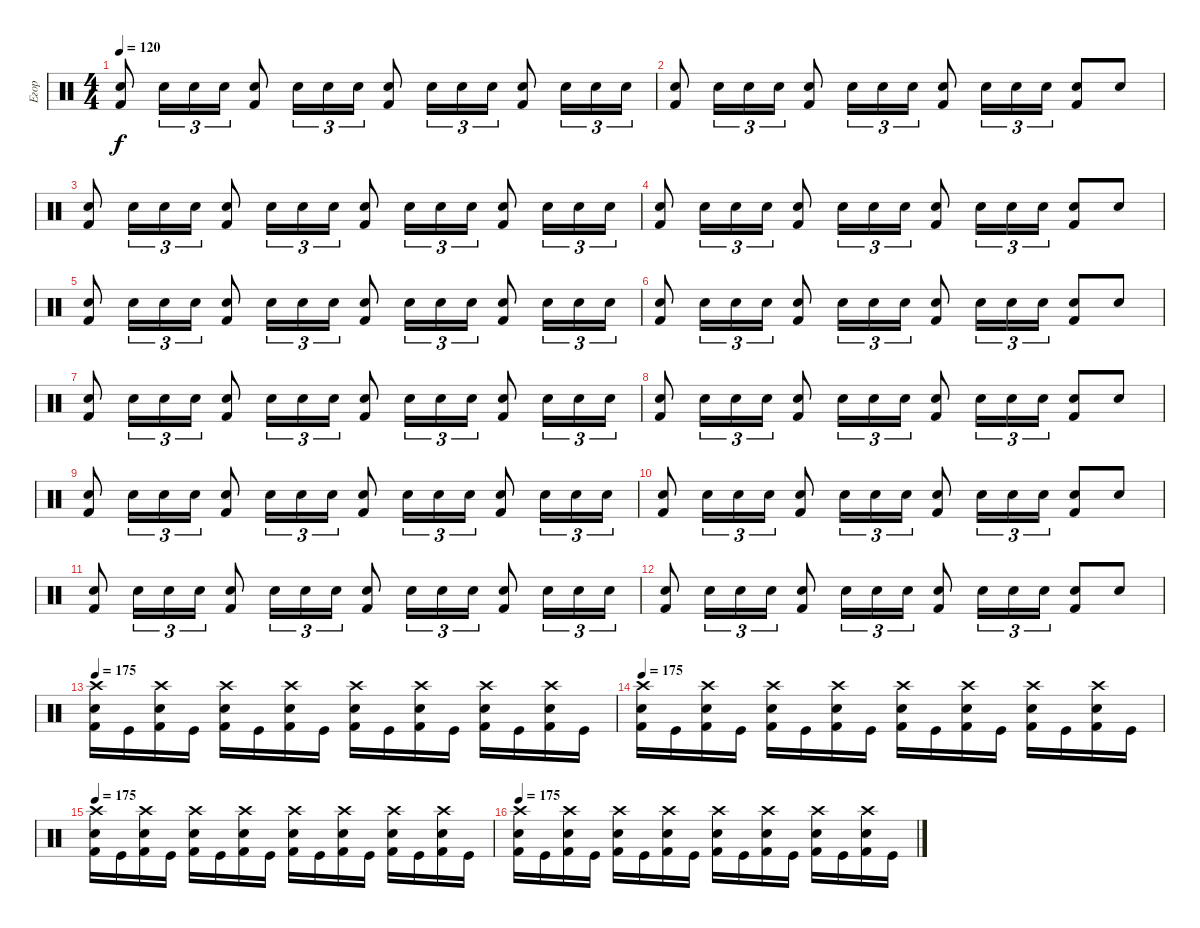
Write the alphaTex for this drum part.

\track ("Егор" "Егор") {instrument percussion}
\staff {score}
\articulation defaults
\ts (4 4)
\tempo 120
\clef neutral
\ks c
("Snare (hit) 2" "Kick (hit) 2").8{dy f} "Snare (hit) 2".16{tu (3 2)} "Snare (hit) 2".16{tu (3 2)} "Snare (hit) 2".16{tu (3 2)} ("Snare (hit) 2" "Kick (hit) 2").8 "Snare (hit) 2".16{tu (3 2)} "Snare (hit) 2".16{tu (3 2)} "Snare (hit) 2".16{tu (3 2)} ("Snare (hit) 2" "Kick (hit) 2").8 "Snare (hit) 2".16{tu (3 2)} "Snare (hit) 2".16{tu (3 2)} "Snare (hit) 2".16{tu (3 2)} ("Snare (hit) 2" "Kick (hit) 2").8 "Snare (hit) 2".16{tu (3 2)} "Snare (hit) 2".16{tu (3 2)} "Snare (hit) 2".16{tu (3 2)} |
("Snare (hit) 2" "Kick (hit) 2").8 "Snare (hit) 2".16{tu (3 2)} "Snare (hit) 2".16{tu (3 2)} "Snare (hit) 2".16{tu (3 2)} ("Snare (hit) 2" "Kick (hit) 2").8 "Snare (hit) 2".16{tu (3 2)} "Snare (hit) 2".16{tu (3 2)} "Snare (hit) 2".16{tu (3 2)} ("Snare (hit) 2" "Kick (hit) 2").8 "Snare (hit) 2".16{tu (3 2)} "Snare (hit) 2".16{tu (3 2)} "Snare (hit) 2".16{tu (3 2)} ("Snare (hit) 2" "Kick (hit) 2").8 "Snare (hit) 2".8 |
("Snare (hit) 2" "Kick (hit) 2").8 "Snare (hit) 2".16{tu (3 2)} "Snare (hit) 2".16{tu (3 2)} "Snare (hit) 2".16{tu (3 2)} ("Snare (hit) 2" "Kick (hit) 2").8 "Snare (hit) 2".16{tu (3 2)} "Snare (hit) 2".16{tu (3 2)} "Snare (hit) 2".16{tu (3 2)} ("Snare (hit) 2" "Kick (hit) 2").8 "Snare (hit) 2".16{tu (3 2)} "Snare (hit) 2".16{tu (3 2)} "Snare (hit) 2".16{tu (3 2)} ("Snare (hit) 2" "Kick (hit) 2").8 "Snare (hit) 2".16{tu (3 2)} "Snare (hit) 2".16{tu (3 2)} "Snare (hit) 2".16{tu (3 2)} |
("Snare (hit) 2" "Kick (hit) 2").8 "Snare (hit) 2".16{tu (3 2)} "Snare (hit) 2".16{tu (3 2)} "Snare (hit) 2".16{tu (3 2)} ("Snare (hit) 2" "Kick (hit) 2").8 "Snare (hit) 2".16{tu (3 2)} "Snare (hit) 2".16{tu (3 2)} "Snare (hit) 2".16{tu (3 2)} ("Snare (hit) 2" "Kick (hit) 2").8 "Snare (hit) 2".16{tu (3 2)} "Snare (hit) 2".16{tu (3 2)} "Snare (hit) 2".16{tu (3 2)} ("Snare (hit) 2" "Kick (hit) 2").8 "Snare (hit) 2".8 |
("Snare (hit) 2" "Kick (hit) 2").8 "Snare (hit) 2".16{tu (3 2)} "Snare (hit) 2".16{tu (3 2)} "Snare (hit) 2".16{tu (3 2)} ("Snare (hit) 2" "Kick (hit) 2").8 "Snare (hit) 2".16{tu (3 2)} "Snare (hit) 2".16{tu (3 2)} "Snare (hit) 2".16{tu (3 2)} ("Snare (hit) 2" "Kick (hit) 2").8 "Snare (hit) 2".16{tu (3 2)} "Snare (hit) 2".16{tu (3 2)} "Snare (hit) 2".16{tu (3 2)} ("Snare (hit) 2" "Kick (hit) 2").8 "Snare (hit) 2".16{tu (3 2)} "Snare (hit) 2".16{tu (3 2)} "Snare (hit) 2".16{tu (3 2)} |
("Snare (hit) 2" "Kick (hit) 2").8 "Snare (hit) 2".16{tu (3 2)} "Snare (hit) 2".16{tu (3 2)} "Snare (hit) 2".16{tu (3 2)} ("Snare (hit) 2" "Kick (hit) 2").8 "Snare (hit) 2".16{tu (3 2)} "Snare (hit) 2".16{tu (3 2)} "Snare (hit) 2".16{tu (3 2)} ("Snare (hit) 2" "Kick (hit) 2").8 "Snare (hit) 2".16{tu (3 2)} "Snare (hit) 2".16{tu (3 2)} "Snare (hit) 2".16{tu (3 2)} ("Snare (hit) 2" "Kick (hit) 2").8 "Snare (hit) 2".8 |
("Snare (hit) 2" "Kick (hit) 2").8 "Snare (hit) 2".16{tu (3 2)} "Snare (hit) 2".16{tu (3 2)} "Snare (hit) 2".16{tu (3 2)} ("Snare (hit) 2" "Kick (hit) 2").8 "Snare (hit) 2".16{tu (3 2)} "Snare (hit) 2".16{tu (3 2)} "Snare (hit) 2".16{tu (3 2)} ("Snare (hit) 2" "Kick (hit) 2").8 "Snare (hit) 2".16{tu (3 2)} "Snare (hit) 2".16{tu (3 2)} "Snare (hit) 2".16{tu (3 2)} ("Snare (hit) 2" "Kick (hit) 2").8 "Snare (hit) 2".16{tu (3 2)} "Snare (hit) 2".16{tu (3 2)} "Snare (hit) 2".16{tu (3 2)} |
("Snare (hit) 2" "Kick (hit) 2").8 "Snare (hit) 2".16{tu (3 2)} "Snare (hit) 2".16{tu (3 2)} "Snare (hit) 2".16{tu (3 2)} ("Snare (hit) 2" "Kick (hit) 2").8 "Snare (hit) 2".16{tu (3 2)} "Snare (hit) 2".16{tu (3 2)} "Snare (hit) 2".16{tu (3 2)} ("Snare (hit) 2" "Kick (hit) 2").8 "Snare (hit) 2".16{tu (3 2)} "Snare (hit) 2".16{tu (3 2)} "Snare (hit) 2".16{tu (3 2)} ("Snare (hit) 2" "Kick (hit) 2").8 "Snare (hit) 2".8 |
("Snare (hit) 2" "Kick (hit) 2").8 "Snare (hit) 2".16{tu (3 2)} "Snare (hit) 2".16{tu (3 2)} "Snare (hit) 2".16{tu (3 2)} ("Snare (hit) 2" "Kick (hit) 2").8 "Snare (hit) 2".16{tu (3 2)} "Snare (hit) 2".16{tu (3 2)} "Snare (hit) 2".16{tu (3 2)} ("Snare (hit) 2" "Kick (hit) 2").8 "Snare (hit) 2".16{tu (3 2)} "Snare (hit) 2".16{tu (3 2)} "Snare (hit) 2".16{tu (3 2)} ("Snare (hit) 2" "Kick (hit) 2").8 "Snare (hit) 2".16{tu (3 2)} "Snare (hit) 2".16{tu (3 2)} "Snare (hit) 2".16{tu (3 2)} |
("Snare (hit) 2" "Kick (hit) 2").8 "Snare (hit) 2".16{tu (3 2)} "Snare (hit) 2".16{tu (3 2)} "Snare (hit) 2".16{tu (3 2)} ("Snare (hit) 2" "Kick (hit) 2").8 "Snare (hit) 2".16{tu (3 2)} "Snare (hit) 2".16{tu (3 2)} "Snare (hit) 2".16{tu (3 2)} ("Snare (hit) 2" "Kick (hit) 2").8 "Snare (hit) 2".16{tu (3 2)} "Snare (hit) 2".16{tu (3 2)} "Snare (hit) 2".16{tu (3 2)} ("Snare (hit) 2" "Kick (hit) 2").8 "Snare (hit) 2".8 |
("Snare (hit) 2" "Kick (hit) 2").8 "Snare (hit) 2".16{tu (3 2)} "Snare (hit) 2".16{tu (3 2)} "Snare (hit) 2".16{tu (3 2)} ("Snare (hit) 2" "Kick (hit) 2").8 "Snare (hit) 2".16{tu (3 2)} "Snare (hit) 2".16{tu (3 2)} "Snare (hit) 2".16{tu (3 2)} ("Snare (hit) 2" "Kick (hit) 2").8 "Snare (hit) 2".16{tu (3 2)} "Snare (hit) 2".16{tu (3 2)} "Snare (hit) 2".16{tu (3 2)} ("Snare (hit) 2" "Kick (hit) 2").8 "Snare (hit) 2".16{tu (3 2)} "Snare (hit) 2".16{tu (3 2)} "Snare (hit) 2".16{tu (3 2)} |
("Snare (hit) 2" "Kick (hit) 2").8 "Snare (hit) 2".16{tu (3 2)} "Snare (hit) 2".16{tu (3 2)} "Snare (hit) 2".16{tu (3 2)} ("Snare (hit) 2" "Kick (hit) 2").8 "Snare (hit) 2".16{tu (3 2)} "Snare (hit) 2".16{tu (3 2)} "Snare (hit) 2".16{tu (3 2)} ("Snare (hit) 2" "Kick (hit) 2").8 "Snare (hit) 2".16{tu (3 2)} "Snare (hit) 2".16{tu (3 2)} "Snare (hit) 2".16{tu (3 2)} ("Snare (hit) 2" "Kick (hit) 2").8 "Snare (hit) 2".8 |
\tempo 175
("Snare (hit) 2" "Crash high (hit)" "Kick (hit) 2").16 "Kick (hit)".16 ("Snare (hit) 2" "Crash high (hit)" "Kick (hit) 2").16 "Kick (hit)".16 ("Snare (hit) 2" "Crash high (hit)" "Kick (hit) 2").16 "Kick (hit)".16 ("Snare (hit) 2" "Crash high (hit)" "Kick (hit) 2").16 "Kick (hit)".16 ("Snare (hit) 2" "Crash high (hit)" "Kick (hit) 2").16 "Kick (hit)".16 ("Snare (hit) 2" "Crash high (hit)" "Kick (hit) 2").16 "Kick (hit)".16 ("Snare (hit) 2" "Crash high (hit)" "Kick (hit) 2").16 "Kick (hit)".16 ("Snare (hit) 2" "Crash high (hit)" "Kick (hit) 2").16 "Kick (hit)".16 |
\tempo 175
("Snare (hit) 2" "Crash high (hit)" "Kick (hit) 2").16 "Kick (hit)".16 ("Snare (hit) 2" "Crash high (hit)" "Kick (hit) 2").16 "Kick (hit)".16 ("Snare (hit) 2" "Crash high (hit)" "Kick (hit) 2").16 "Kick (hit)".16 ("Snare (hit) 2" "Crash high (hit)" "Kick (hit) 2").16 "Kick (hit)".16 ("Snare (hit) 2" "Crash high (hit)" "Kick (hit) 2").16 "Kick (hit)".16 ("Snare (hit) 2" "Crash high (hit)" "Kick (hit) 2").16 "Kick (hit)".16 ("Snare (hit) 2" "Crash high (hit)" "Kick (hit) 2").16 "Kick (hit)".16 ("Snare (hit) 2" "Crash high (hit)" "Kick (hit) 2").16 "Kick (hit)".16 |
\tempo 175
("Snare (hit) 2" "Crash high (hit)" "Kick (hit) 2").16 "Kick (hit)".16 ("Snare (hit) 2" "Crash high (hit)" "Kick (hit) 2").16 "Kick (hit)".16 ("Snare (hit) 2" "Crash high (hit)" "Kick (hit) 2").16 "Kick (hit)".16 ("Snare (hit) 2" "Crash high (hit)" "Kick (hit) 2").16 "Kick (hit)".16 ("Snare (hit) 2" "Crash high (hit)" "Kick (hit) 2").16 "Kick (hit)".16 ("Snare (hit) 2" "Crash high (hit)" "Kick (hit) 2").16 "Kick (hit)".16 ("Snare (hit) 2" "Crash high (hit)" "Kick (hit) 2").16 "Kick (hit)".16 ("Snare (hit) 2" "Crash high (hit)" "Kick (hit) 2").16 "Kick (hit)".16 |
\tempo 175
("Snare (hit) 2" "Crash high (hit)" "Kick (hit) 2").16 "Kick (hit)".16 ("Snare (hit) 2" "Crash high (hit)" "Kick (hit) 2").16 "Kick (hit)".16 ("Snare (hit) 2" "Crash high (hit)" "Kick (hit) 2").16 "Kick (hit)".16 ("Snare (hit) 2" "Crash high (hit)" "Kick (hit) 2").16 "Kick (hit)".16 ("Snare (hit) 2" "Crash high (hit)" "Kick (hit) 2").16 "Kick (hit)".16 ("Snare (hit) 2" "Crash high (hit)" "Kick (hit) 2").16 "Kick (hit)".16 ("Snare (hit) 2" "Crash high (hit)" "Kick (hit) 2").16 "Kick (hit)".16 ("Snare (hit) 2" "Crash high (hit)" "Kick (hit) 2").16 "Kick (hit)".16
